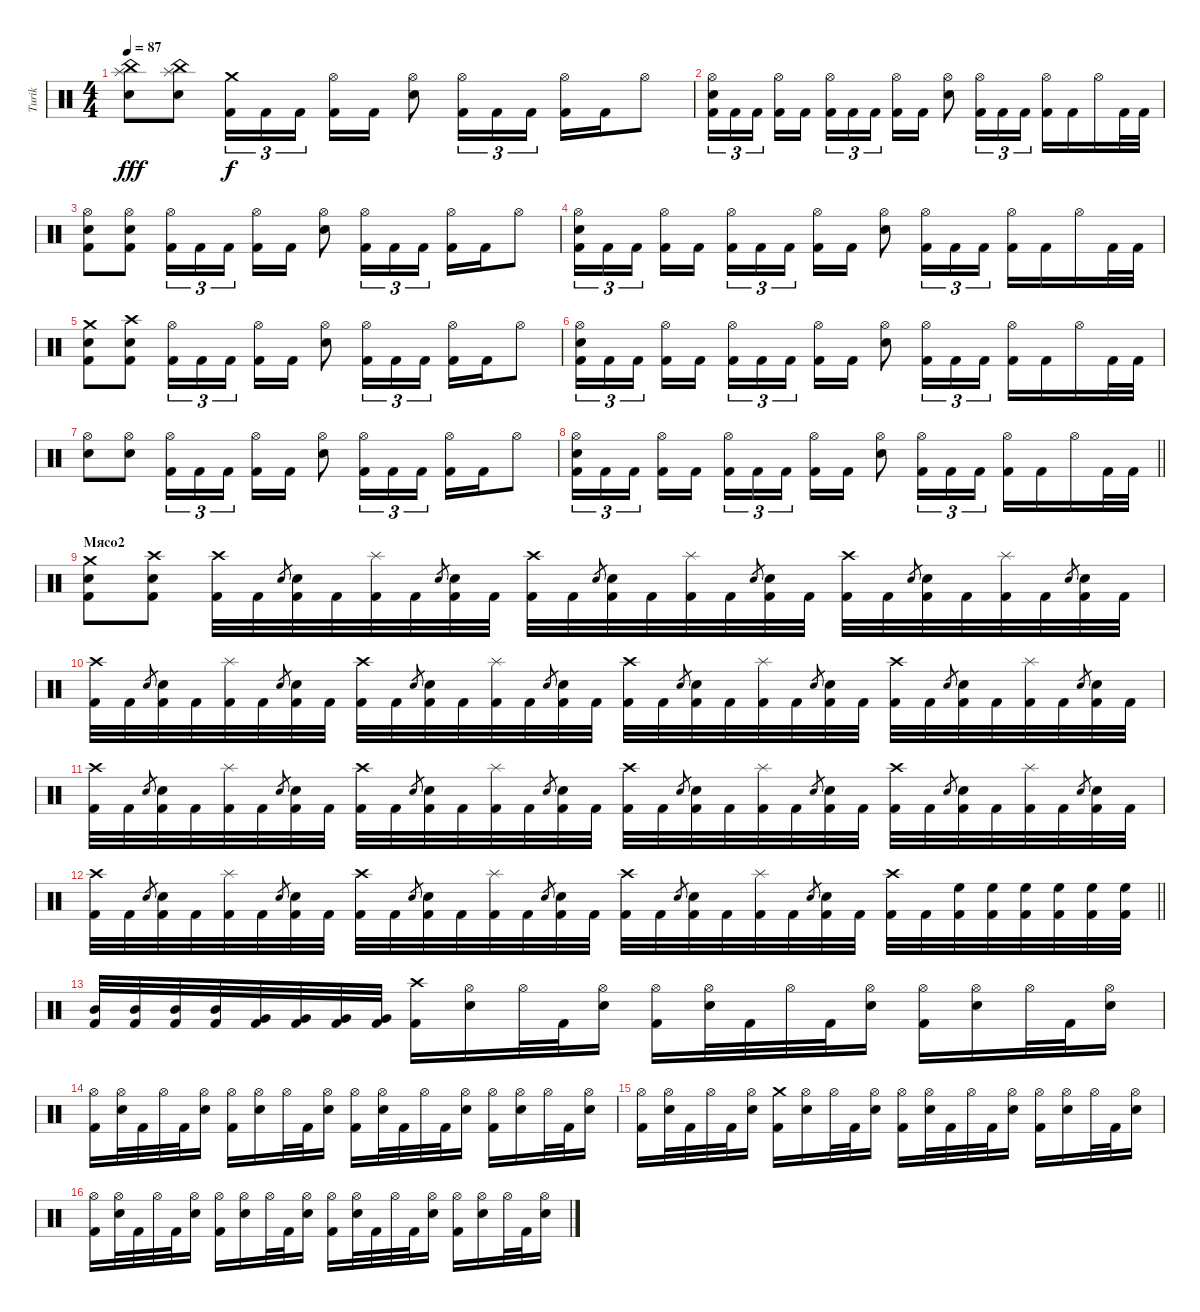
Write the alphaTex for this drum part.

\track ("Turik" "Turik") {instrument percussion}
\staff {score}
\articulation defaults
\ts (4 4)
\tempo 87
\clef neutral
\ks c
("Splash (hit)" "China (hit)" "Snare (hit) 2").8{dy fff} ("Splash (hit)" "China (hit)" "Snare (hit) 2").8 ("Crash medium (hit)" "Kick (hit) 2").16{tu (3 2) dy f} "Kick (hit) 2".16{tu (3 2)} "Kick (hit) 2".16{tu (3 2) beam splitsecondary} ("Hi-Hat (open)" "Kick (hit) 2").16 "Kick (hit) 2".16 ("Hi-Hat (open)" "Snare (hit) 2").8 ("Hi-Hat (open)" "Kick (hit) 2").16{tu (3 2)} "Kick (hit) 2".16{tu (3 2)} "Kick (hit) 2".16{tu (3 2)} ("Hi-Hat (open)" "Kick (hit) 2").16 "Kick (hit) 2".16 "Hi-Hat (open)".8 |
("Hi-Hat (open)" "Snare (hit) 2" "Kick (hit) 2").16{tu (3 2)} "Kick (hit) 2".16{tu (3 2)} "Kick (hit) 2".16{tu (3 2) beam splitsecondary} ("Hi-Hat (open)" "Kick (hit) 2").16 "Kick (hit) 2".16 ("Hi-Hat (open)" "Kick (hit) 2").16{tu (3 2)} "Kick (hit) 2".16{tu (3 2)} "Kick (hit) 2".16{tu (3 2) beam splitsecondary} ("Hi-Hat (open)" "Kick (hit) 2").16 "Kick (hit) 2".16 ("Hi-Hat (open)" "Snare (hit) 2").8 ("Hi-Hat (open)" "Kick (hit) 2").16{tu (3 2)} "Kick (hit) 2".16{tu (3 2)} "Kick (hit) 2".16{tu (3 2)} ("Hi-Hat (open)" "Kick (hit) 2").16 "Kick (hit) 2".16 "Hi-Hat (open)".16 "Kick (hit) 2".32 "Kick (hit) 2".32 |
("Hi-Hat (open)" "Snare (hit) 2" "Kick (hit) 2").8 ("Hi-Hat (open)" "Snare (hit) 2" "Kick (hit) 2").8 ("Hi-Hat (open)" "Kick (hit) 2").16{tu (3 2)} "Kick (hit) 2".16{tu (3 2)} "Kick (hit) 2".16{tu (3 2) beam splitsecondary} ("Hi-Hat (open)" "Kick (hit) 2").16 "Kick (hit) 2".16 ("Hi-Hat (open)" "Snare (hit) 2").8 ("Hi-Hat (open)" "Kick (hit) 2").16{tu (3 2)} "Kick (hit) 2".16{tu (3 2)} "Kick (hit) 2".16{tu (3 2)} ("Hi-Hat (open)" "Kick (hit) 2").16 "Kick (hit) 2".16 "Hi-Hat (open)".8 |
("Hi-Hat (open)" "Snare (hit) 2" "Kick (hit) 2").16{tu (3 2)} "Kick (hit) 2".16{tu (3 2)} "Kick (hit) 2".16{tu (3 2) beam splitsecondary} ("Hi-Hat (open)" "Kick (hit) 2").16 "Kick (hit) 2".16 ("Hi-Hat (open)" "Kick (hit) 2").16{tu (3 2)} "Kick (hit) 2".16{tu (3 2)} "Kick (hit) 2".16{tu (3 2) beam splitsecondary} ("Hi-Hat (open)" "Kick (hit) 2").16 "Kick (hit) 2".16 ("Hi-Hat (open)" "Snare (hit) 2").8 ("Hi-Hat (open)" "Kick (hit) 2").16{tu (3 2)} "Kick (hit) 2".16{tu (3 2)} "Kick (hit) 2".16{tu (3 2)} ("Hi-Hat (open)" "Kick (hit) 2").16 "Kick (hit) 2".16 "Hi-Hat (open)".16 "Kick (hit) 2".32 "Kick (hit) 2".32 |
("Crash medium (hit)" "Snare (hit) 2" "Kick (hit) 2").8 ("Crash high (hit)" "Snare (hit) 2" "Kick (hit) 2").8 ("Hi-Hat (open)" "Kick (hit) 2").16{tu (3 2)} "Kick (hit) 2".16{tu (3 2)} "Kick (hit) 2".16{tu (3 2) beam splitsecondary} ("Hi-Hat (open)" "Kick (hit) 2").16 "Kick (hit) 2".16 ("Hi-Hat (open)" "Snare (hit) 2").8 ("Hi-Hat (open)" "Kick (hit) 2").16{tu (3 2)} "Kick (hit) 2".16{tu (3 2)} "Kick (hit) 2".16{tu (3 2)} ("Hi-Hat (open)" "Kick (hit) 2").16 "Kick (hit) 2".16 "Hi-Hat (open)".8 |
("Hi-Hat (open)" "Snare (hit) 2" "Kick (hit) 2").16{tu (3 2)} "Kick (hit) 2".16{tu (3 2)} "Kick (hit) 2".16{tu (3 2) beam splitsecondary} ("Hi-Hat (open)" "Kick (hit) 2").16 "Kick (hit) 2".16 ("Hi-Hat (open)" "Kick (hit) 2").16{tu (3 2)} "Kick (hit) 2".16{tu (3 2)} "Kick (hit) 2".16{tu (3 2) beam splitsecondary} ("Hi-Hat (open)" "Kick (hit) 2").16 "Kick (hit) 2".16 ("Hi-Hat (open)" "Snare (hit) 2").8 ("Hi-Hat (open)" "Kick (hit) 2").16{tu (3 2)} "Kick (hit) 2".16{tu (3 2)} "Kick (hit) 2".16{tu (3 2)} ("Hi-Hat (open)" "Kick (hit) 2").16 "Kick (hit) 2".16 "Hi-Hat (open)".16 "Kick (hit) 2".32 "Kick (hit) 2".32 |
("Hi-Hat (open)" "Snare (hit) 2").8 ("Hi-Hat (open)" "Snare (hit) 2").8 ("Hi-Hat (open)" "Kick (hit) 2").16{tu (3 2)} "Kick (hit) 2".16{tu (3 2)} "Kick (hit) 2".16{tu (3 2) beam splitsecondary} ("Hi-Hat (open)" "Kick (hit) 2").16 "Kick (hit) 2".16 ("Hi-Hat (open)" "Snare (hit) 2").8 ("Hi-Hat (open)" "Kick (hit) 2").16{tu (3 2)} "Kick (hit) 2".16{tu (3 2)} "Kick (hit) 2".16{tu (3 2)} ("Hi-Hat (open)" "Kick (hit) 2").16 "Kick (hit) 2".16 "Hi-Hat (open)".8 |
\barLineRight lightlight
("Hi-Hat (open)" "Snare (hit) 2" "Kick (hit) 2").16{tu (3 2)} "Kick (hit) 2".16{tu (3 2)} "Kick (hit) 2".16{tu (3 2) beam splitsecondary} ("Hi-Hat (open)" "Kick (hit) 2").16 "Kick (hit) 2".16 ("Hi-Hat (open)" "Kick (hit) 2").16{tu (3 2)} "Kick (hit) 2".16{tu (3 2)} "Kick (hit) 2".16{tu (3 2) beam splitsecondary} ("Hi-Hat (open)" "Kick (hit) 2").16 "Kick (hit) 2".16 ("Hi-Hat (open)" "Snare (hit) 2").8 ("Hi-Hat (open)" "Kick (hit) 2").16{tu (3 2)} "Kick (hit) 2".16{tu (3 2)} "Kick (hit) 2".16{tu (3 2)} ("Hi-Hat (open)" "Kick (hit) 2").16 "Kick (hit) 2".16 "Hi-Hat (open)".16 "Kick (hit) 2".32 "Kick (hit) 2".32 |
\section ("" "Мясо2")
("Crash medium (hit)" "Snare (hit) 2" "Kick (hit) 2").8 ("Crash high (hit)" "Snare (hit) 2" "Kick (hit) 2").8 ("Crash high (hit)" "Kick (hit) 2").32 "Kick (hit) 2".32 "Snare (hit) 2".8{gr} ("Snare (hit) 2" "Kick (hit) 2").32 "Kick (hit) 2".32 ("Splash (hit)" "Kick (hit) 2").32 "Kick (hit) 2".32 "Snare (hit) 2".8{gr} ("Snare (hit) 2" "Kick (hit) 2").32 "Kick (hit) 2".32 ("Crash high (hit)" "Kick (hit) 2").32 "Kick (hit) 2".32 "Snare (hit) 2".8{gr} ("Snare (hit) 2" "Kick (hit) 2").32 "Kick (hit) 2".32 ("Splash (hit)" "Kick (hit) 2").32 "Kick (hit) 2".32 "Snare (hit) 2".8{gr} ("Snare (hit) 2" "Kick (hit) 2").32 "Kick (hit) 2".32 ("Crash high (hit)" "Kick (hit) 2").32 "Kick (hit) 2".32 "Snare (hit) 2".8{gr} ("Snare (hit) 2" "Kick (hit) 2").32 "Kick (hit) 2".32 ("Splash (hit)" "Kick (hit) 2").32 "Kick (hit) 2".32 "Snare (hit) 2".8{gr} ("Snare (hit) 2" "Kick (hit) 2").32 "Kick (hit) 2".32 |
("Crash high (hit)" "Kick (hit) 2").32 "Kick (hit) 2".32 "Snare (hit) 2".8{gr} ("Snare (hit) 2" "Kick (hit) 2").32 "Kick (hit) 2".32 ("Splash (hit)" "Kick (hit) 2").32 "Kick (hit) 2".32 "Snare (hit) 2".8{gr} ("Snare (hit) 2" "Kick (hit) 2").32 "Kick (hit) 2".32 ("Crash high (hit)" "Kick (hit) 2").32 "Kick (hit) 2".32 "Snare (hit) 2".8{gr} ("Snare (hit) 2" "Kick (hit) 2").32 "Kick (hit) 2".32 ("Splash (hit)" "Kick (hit) 2").32 "Kick (hit) 2".32 "Snare (hit) 2".8{gr} ("Snare (hit) 2" "Kick (hit) 2").32 "Kick (hit) 2".32 ("Crash high (hit)" "Kick (hit) 2").32 "Kick (hit) 2".32 "Snare (hit) 2".8{gr} ("Snare (hit) 2" "Kick (hit) 2").32 "Kick (hit) 2".32 ("Splash (hit)" "Kick (hit) 2").32 "Kick (hit) 2".32 "Snare (hit) 2".8{gr} ("Snare (hit) 2" "Kick (hit) 2").32 "Kick (hit) 2".32 ("Crash high (hit)" "Kick (hit) 2").32 "Kick (hit) 2".32 "Snare (hit) 2".8{gr} ("Snare (hit) 2" "Kick (hit) 2").32 "Kick (hit) 2".32 ("Splash (hit)" "Kick (hit) 2").32 "Kick (hit) 2".32 "Snare (hit) 2".8{gr} ("Snare (hit) 2" "Kick (hit) 2").32 "Kick (hit) 2".32 |
("Crash high (hit)" "Kick (hit) 2").32 "Kick (hit) 2".32 "Snare (hit) 2".8{gr} ("Snare (hit) 2" "Kick (hit) 2").32 "Kick (hit) 2".32 ("Splash (hit)" "Kick (hit) 2").32 "Kick (hit) 2".32 "Snare (hit) 2".8{gr} ("Snare (hit) 2" "Kick (hit) 2").32 "Kick (hit) 2".32 ("Crash high (hit)" "Kick (hit) 2").32 "Kick (hit) 2".32 "Snare (hit) 2".8{gr} ("Snare (hit) 2" "Kick (hit) 2").32 "Kick (hit) 2".32 ("Splash (hit)" "Kick (hit) 2").32 "Kick (hit) 2".32 "Snare (hit) 2".8{gr} ("Snare (hit) 2" "Kick (hit) 2").32 "Kick (hit) 2".32 ("Crash high (hit)" "Kick (hit) 2").32 "Kick (hit) 2".32 "Snare (hit) 2".8{gr} ("Snare (hit) 2" "Kick (hit) 2").32 "Kick (hit) 2".32 ("Splash (hit)" "Kick (hit) 2").32 "Kick (hit) 2".32 "Snare (hit) 2".8{gr} ("Snare (hit) 2" "Kick (hit) 2").32 "Kick (hit) 2".32 ("Crash high (hit)" "Kick (hit) 2").32 "Kick (hit) 2".32 "Snare (hit) 2".8{gr} ("Snare (hit) 2" "Kick (hit) 2").32 "Kick (hit) 2".32 ("Splash (hit)" "Kick (hit) 2").32 "Kick (hit) 2".32 "Snare (hit) 2".8{gr} ("Snare (hit) 2" "Kick (hit) 2").32 "Kick (hit) 2".32 |
\barLineRight lightlight
("Crash high (hit)" "Kick (hit) 2").32 "Kick (hit) 2".32 "Snare (hit) 2".8{gr} ("Snare (hit) 2" "Kick (hit) 2").32 "Kick (hit) 2".32 ("Splash (hit)" "Kick (hit) 2").32 "Kick (hit) 2".32 "Snare (hit) 2".8{gr} ("Snare (hit) 2" "Kick (hit) 2").32 "Kick (hit) 2".32 ("Crash high (hit)" "Kick (hit) 2").32{beam Down} "Kick (hit) 2".32{beam Down} "Snare (hit) 2".8{gr} ("Snare (hit) 2" "Kick (hit) 2").32{beam Down} "Kick (hit) 2".32{beam Down} ("Splash (hit)" "Kick (hit) 2").32{beam Down} "Kick (hit) 2".32{beam Down} "Snare (hit) 2".8{gr} ("Snare (hit) 2" "Kick (hit) 2").32{beam Down} "Kick (hit) 2".32{beam Down} ("Crash high (hit)" "Kick (hit) 2").32 "Kick (hit) 2".32 "Snare (hit) 2".8{gr} ("Snare (hit) 2" "Kick (hit) 2").32 "Kick (hit) 2".32 ("Splash (hit)" "Kick (hit) 2").32 "Kick (hit) 2".32 "Snare (hit) 2".8{gr} ("Snare (hit) 2" "Kick (hit) 2").32 "Kick (hit) 2".32 ("Crash high (hit)" "Kick (hit) 2").32 "Kick (hit) 2".32 ("High Floor Tom (hit)" "Kick (hit) 2").32 ("High Floor Tom (hit)" "Kick (hit) 2").32 ("High Floor Tom (hit)" "Kick (hit) 2").32 ("High Floor Tom (hit)" "Kick (hit) 2").32 ("High Floor Tom (hit)" "Kick (hit) 2").32 ("High Floor Tom (hit)" "Kick (hit) 2").32 |
("Mid Tom (hit)" "Kick (hit) 2").32 ("Mid Tom (hit)" "Kick (hit) 2").32 ("Mid Tom (hit)" "Kick (hit) 2").32 ("Mid Tom (hit)" "Kick (hit) 2").32 ("Very Low Tom (hit)" "Kick (hit) 2").32 ("Very Low Tom (hit)" "Kick (hit) 2").32 ("Very Low Tom (hit)" "Kick (hit) 2").32 ("Very Low Tom (hit)" "Kick (hit) 2").32 ("Crash high (hit)" "Kick (hit) 2").16 ("Hi-Hat (open)" "Snare (hit) 2").16 "Hi-Hat (open)".32 "Kick (hit) 2".32 ("Hi-Hat (open)" "Snare (hit) 2").16 ("Hi-Hat (open)" "Kick (hit) 2").16 ("Hi-Hat (open)" "Snare (hit) 2").32 "Kick (hit) 2".32 "Hi-Hat (open)".32 "Kick (hit) 2".32 ("Hi-Hat (open)" "Snare (hit) 2").16 ("Hi-Hat (open)" "Kick (hit) 2").16 ("Hi-Hat (open)" "Snare (hit) 2").16 "Hi-Hat (open)".32 "Kick (hit) 2".32 ("Hi-Hat (open)" "Snare (hit) 2").16 |
("Hi-Hat (open)" "Kick (hit) 2").16 ("Hi-Hat (open)" "Snare (hit) 2").32 "Kick (hit) 2".32 "Hi-Hat (open)".32 "Kick (hit) 2".32 ("Hi-Hat (open)" "Snare (hit) 2").16 ("Hi-Hat (open)" "Kick (hit) 2").16 ("Hi-Hat (open)" "Snare (hit) 2").16 "Hi-Hat (open)".32 "Kick (hit) 2".32 ("Hi-Hat (open)" "Snare (hit) 2").16 ("Hi-Hat (open)" "Kick (hit) 2").16 ("Hi-Hat (open)" "Snare (hit) 2").32 "Kick (hit) 2".32 "Hi-Hat (open)".32 "Kick (hit) 2".32 ("Hi-Hat (open)" "Snare (hit) 2").16 ("Hi-Hat (open)" "Kick (hit) 2").16 ("Hi-Hat (open)" "Snare (hit) 2").16 "Hi-Hat (open)".32 "Kick (hit) 2".32 ("Hi-Hat (open)" "Snare (hit) 2").16 |
("Hi-Hat (open)" "Kick (hit) 2").16 ("Hi-Hat (open)" "Snare (hit) 2").32 "Kick (hit) 2".32 "Hi-Hat (open)".32 "Kick (hit) 2".32 ("Hi-Hat (open)" "Snare (hit) 2").16 ("Crash medium (hit)" "Kick (hit) 2").16 ("Hi-Hat (open)" "Snare (hit) 2").16 "Hi-Hat (open)".32 "Kick (hit) 2".32 ("Hi-Hat (open)" "Snare (hit) 2").16 ("Hi-Hat (open)" "Kick (hit) 2").16 ("Hi-Hat (open)" "Snare (hit) 2").32 "Kick (hit) 2".32 "Hi-Hat (open)".32 "Kick (hit) 2".32 ("Hi-Hat (open)" "Snare (hit) 2").16 ("Hi-Hat (open)" "Kick (hit) 2").16 ("Hi-Hat (open)" "Snare (hit) 2").16 "Hi-Hat (open)".32 "Kick (hit) 2".32 ("Hi-Hat (open)" "Snare (hit) 2").16 |
("Hi-Hat (open)" "Kick (hit) 2").16 ("Hi-Hat (open)" "Snare (hit) 2").32 "Kick (hit) 2".32 "Hi-Hat (open)".32 "Kick (hit) 2".32 ("Hi-Hat (open)" "Snare (hit) 2").16 ("Hi-Hat (open)" "Kick (hit) 2").16 ("Hi-Hat (open)" "Snare (hit) 2").16 "Hi-Hat (open)".32 "Kick (hit) 2".32 ("Hi-Hat (open)" "Snare (hit) 2").16 ("Hi-Hat (open)" "Kick (hit) 2").16 ("Hi-Hat (open)" "Snare (hit) 2").32 "Kick (hit) 2".32 "Hi-Hat (open)".32 "Kick (hit) 2".32 ("Hi-Hat (open)" "Snare (hit) 2").16 ("Hi-Hat (open)" "Kick (hit) 2").16 ("Hi-Hat (open)" "Snare (hit) 2").16 "Hi-Hat (open)".32 "Kick (hit) 2".32 ("Hi-Hat (open)" "Snare (hit) 2").16
